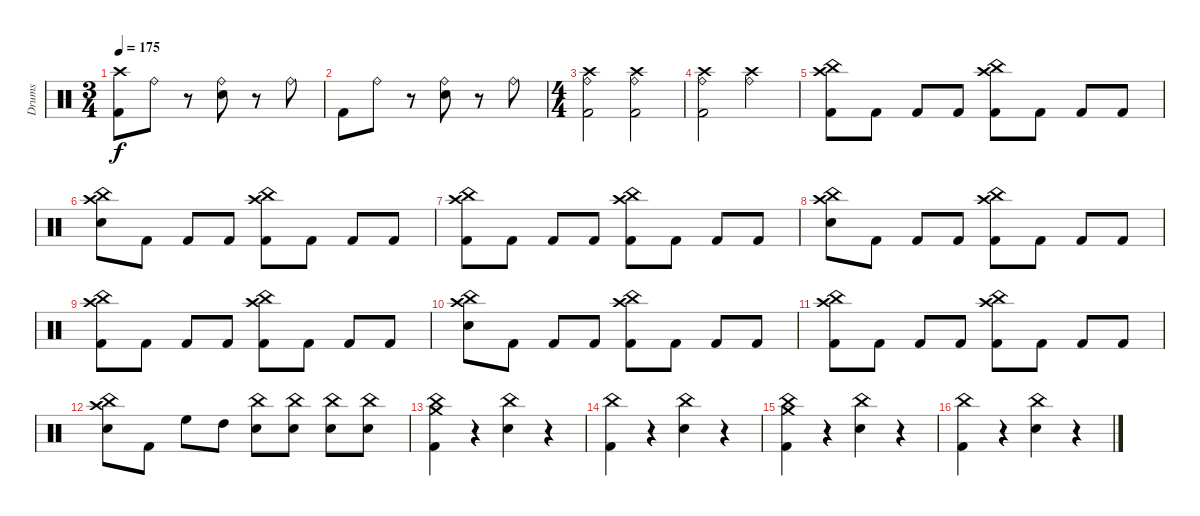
\track ("Drums" "Drums") {instrument percussion}
\staff {score}
\articulation defaults
\ts (3 4)
\tempo 175
\clef neutral
\ks c
("Crash high (hit)" "Kick (hit) 2").8{dy f} "Ride (bell)".8 r.8 ("Ride (bell)" "Electric Snare (hit)").8 r.8 "Ride (bell)".8 |
"Kick (hit) 2".8 "Ride (bell)".8 r.8 ("Ride (bell)" "Electric Snare (hit)").8 r.8 "Ride (bell)".8 |
\ts (4 4)
("Crash high (hit)" "Ride (bell)" "Kick (hit) 2").2 ("Crash high (hit)" "Ride (bell)" "Kick (hit) 2").2 |
("Crash high (hit)" "Ride (bell)" "Kick (hit) 2").2 ("Crash high (hit)" "Ride (bell)").2 |
("Crash high (hit)" "China (hit)" "Kick (hit) 2").8 "Kick (hit) 2".8 "Kick (hit) 2".8 "Kick (hit) 2".8 ("Crash high (hit)" "China (hit)" "Kick (hit) 2").8 "Kick (hit) 2".8 "Kick (hit) 2".8 "Kick (hit) 2".8 |
("Crash high (hit)" "China (hit)" "Electric Snare (hit)").8 "Kick (hit) 2".8 "Kick (hit) 2".8 "Kick (hit) 2".8 ("Crash high (hit)" "China (hit)" "Kick (hit) 2").8 "Kick (hit) 2".8 "Kick (hit) 2".8 "Kick (hit) 2".8 |
("Crash high (hit)" "China (hit)" "Kick (hit) 2").8 "Kick (hit) 2".8 "Kick (hit) 2".8 "Kick (hit) 2".8 ("Crash high (hit)" "China (hit)" "Kick (hit) 2").8 "Kick (hit) 2".8 "Kick (hit) 2".8 "Kick (hit) 2".8 |
("Crash high (hit)" "China (hit)" "Electric Snare (hit)").8 "Kick (hit) 2".8 "Kick (hit) 2".8 "Kick (hit) 2".8 ("Crash high (hit)" "China (hit)" "Kick (hit) 2").8 "Kick (hit) 2".8 "Kick (hit) 2".8 "Kick (hit) 2".8 |
("Crash high (hit)" "China (hit)" "Kick (hit) 2").8 "Kick (hit) 2".8 "Kick (hit) 2".8 "Kick (hit) 2".8 ("Crash high (hit)" "China (hit)" "Kick (hit) 2").8 "Kick (hit) 2".8 "Kick (hit) 2".8 "Kick (hit) 2".8 |
("Crash high (hit)" "China (hit)" "Electric Snare (hit)").8 "Kick (hit) 2".8 "Kick (hit) 2".8 "Kick (hit) 2".8 ("Crash high (hit)" "China (hit)" "Kick (hit) 2").8 "Kick (hit) 2".8 "Kick (hit) 2".8 "Kick (hit) 2".8 |
("Crash high (hit)" "China (hit)" "Kick (hit) 2").8 "Kick (hit) 2".8 "Kick (hit) 2".8 "Kick (hit) 2".8 ("Crash high (hit)" "China (hit)" "Kick (hit) 2").8 "Kick (hit) 2".8 "Kick (hit) 2".8 "Kick (hit) 2".8 |
("Crash high (hit)" "China (hit)" "Electric Snare (hit)").8 "Kick (hit) 2".8 "High Floor Tom (hit)".8 "High Tom (hit)".8 ("China (hit)" "Electric Snare (hit)").8 ("China (hit)" "Electric Snare (hit)").8 ("China (hit)" "Electric Snare (hit)").8 ("China (hit)" "Electric Snare (hit)").8 |
("China (hit)" "Crash medium (hit)" "Kick (hit) 2").4 r.4 ("China (hit)" "Electric Snare (hit)").4 r.4 |
("China (hit)" "Kick (hit) 2").4 r.4 ("China (hit)" "Electric Snare (hit)").4 r.4 |
("China (hit)" "Crash medium (hit)" "Kick (hit) 2").4 r.4 ("China (hit)" "Electric Snare (hit)").4 r.4 |
("China (hit)" "Kick (hit) 2").4 r.4 ("China (hit)" "Electric Snare (hit)").4 r.4
